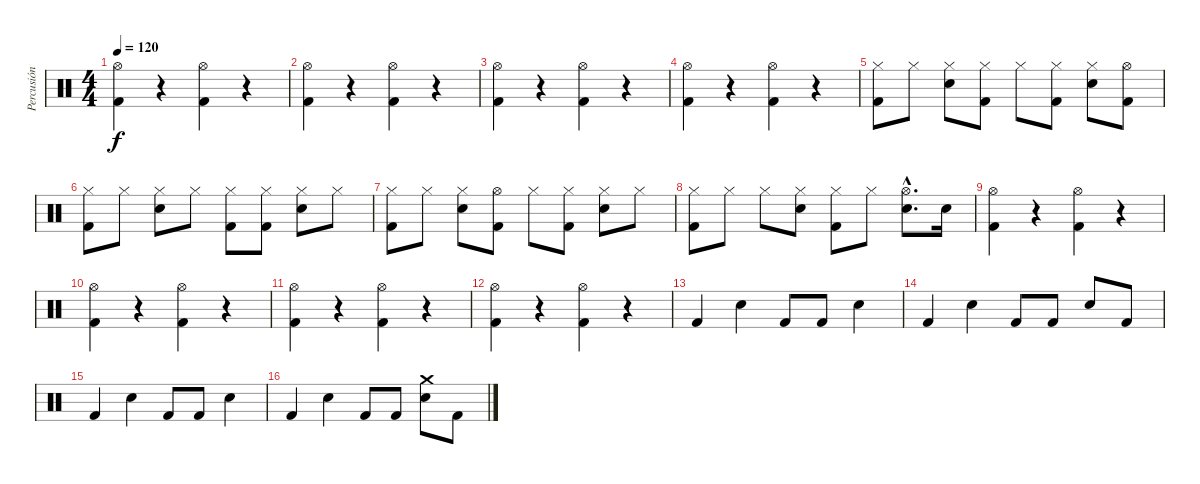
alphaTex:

\track ("Percusión" "Percusión") {instrument percussion}
\staff {score}
\articulation defaults
\ts (4 4)
\tempo 120
\clef neutral
\ks c
("Hi-Hat (open)" "Kick (hit) 2").4{dy f} r.4 ("Hi-Hat (open)" "Kick (hit) 2").4 r.4 |
("Hi-Hat (open)" "Kick (hit) 2").4 r.4 ("Hi-Hat (open)" "Kick (hit) 2").4 r.4 |
("Hi-Hat (open)" "Kick (hit) 2").4 r.4 ("Hi-Hat (open)" "Kick (hit) 2").4 r.4 |
("Hi-Hat (open)" "Kick (hit) 2").4 r.4 ("Hi-Hat (open)" "Kick (hit) 2").4 r.4 |
("Hi-Hat (closed)" "Kick (hit) 2").8 "Hi-Hat (closed)".8 ("Hi-Hat (closed)" "Snare (hit) 2").8 ("Hi-Hat (closed)" "Kick (hit) 2").8 "Hi-Hat (closed)".8 ("Hi-Hat (closed)" "Kick (hit) 2").8 ("Hi-Hat (closed)" "Snare (hit) 2").8 ("Hi-Hat (open)" "Kick (hit) 2").8 |
("Hi-Hat (closed)" "Kick (hit) 2").8 "Hi-Hat (closed)".8 ("Hi-Hat (closed)" "Snare (hit) 2").8 "Hi-Hat (closed)".8 ("Hi-Hat (closed)" "Kick (hit) 2").8 ("Hi-Hat (closed)" "Kick (hit) 2").8 ("Hi-Hat (closed)" "Snare (hit) 2").8 "Hi-Hat (closed)".8 |
("Hi-Hat (closed)" "Kick (hit) 2").8 "Hi-Hat (closed)".8 ("Hi-Hat (closed)" "Snare (hit) 2").8 ("Hi-Hat (open)" "Kick (hit) 2").8 "Hi-Hat (closed)".8 ("Hi-Hat (closed)" "Kick (hit) 2").8 ("Hi-Hat (closed)" "Snare (hit) 2").8 "Hi-Hat (closed)".8 |
("Hi-Hat (closed)" "Kick (hit) 2").8 "Hi-Hat (closed)".8 "Hi-Hat (closed)".8 ("Hi-Hat (closed)" "Snare (hit) 2").8 ("Hi-Hat (closed)" "Kick (hit) 2").8 "Hi-Hat (closed)".8 ("Hi-Hat (open)"{hac} "Snare (hit) 2"{hac}).8{d} "Snare (hit) 2".16 |
("Hi-Hat (open)" "Kick (hit) 2").4 r.4 ("Hi-Hat (open)" "Kick (hit) 2").4 r.4 |
("Hi-Hat (open)" "Kick (hit) 2").4 r.4 ("Hi-Hat (open)" "Kick (hit) 2").4 r.4 |
("Hi-Hat (open)" "Kick (hit) 2").4 r.4 ("Hi-Hat (open)" "Kick (hit) 2").4 r.4 |
("Hi-Hat (open)" "Kick (hit) 2").4 r.4 ("Hi-Hat (open)" "Kick (hit) 2").4 r.4 |
"Kick (hit) 2".4 "Electric Snare (hit)".4 "Kick (hit) 2".8 "Kick (hit) 2".8 "Electric Snare (hit)".4 |
"Kick (hit) 2".4 "Electric Snare (hit)".4 "Kick (hit) 2".8 "Kick (hit) 2".8 "Electric Snare (hit)".8 "Kick (hit) 2".8 |
"Kick (hit) 2".4 "Electric Snare (hit)".4 "Kick (hit) 2".8 "Kick (hit) 2".8 "Electric Snare (hit)".4 |
"Kick (hit) 2".4 "Electric Snare (hit)".4 "Kick (hit) 2".8 "Kick (hit) 2".8 ("Crash medium (hit)" "Electric Snare (hit)").8 "Kick (hit) 2".8
